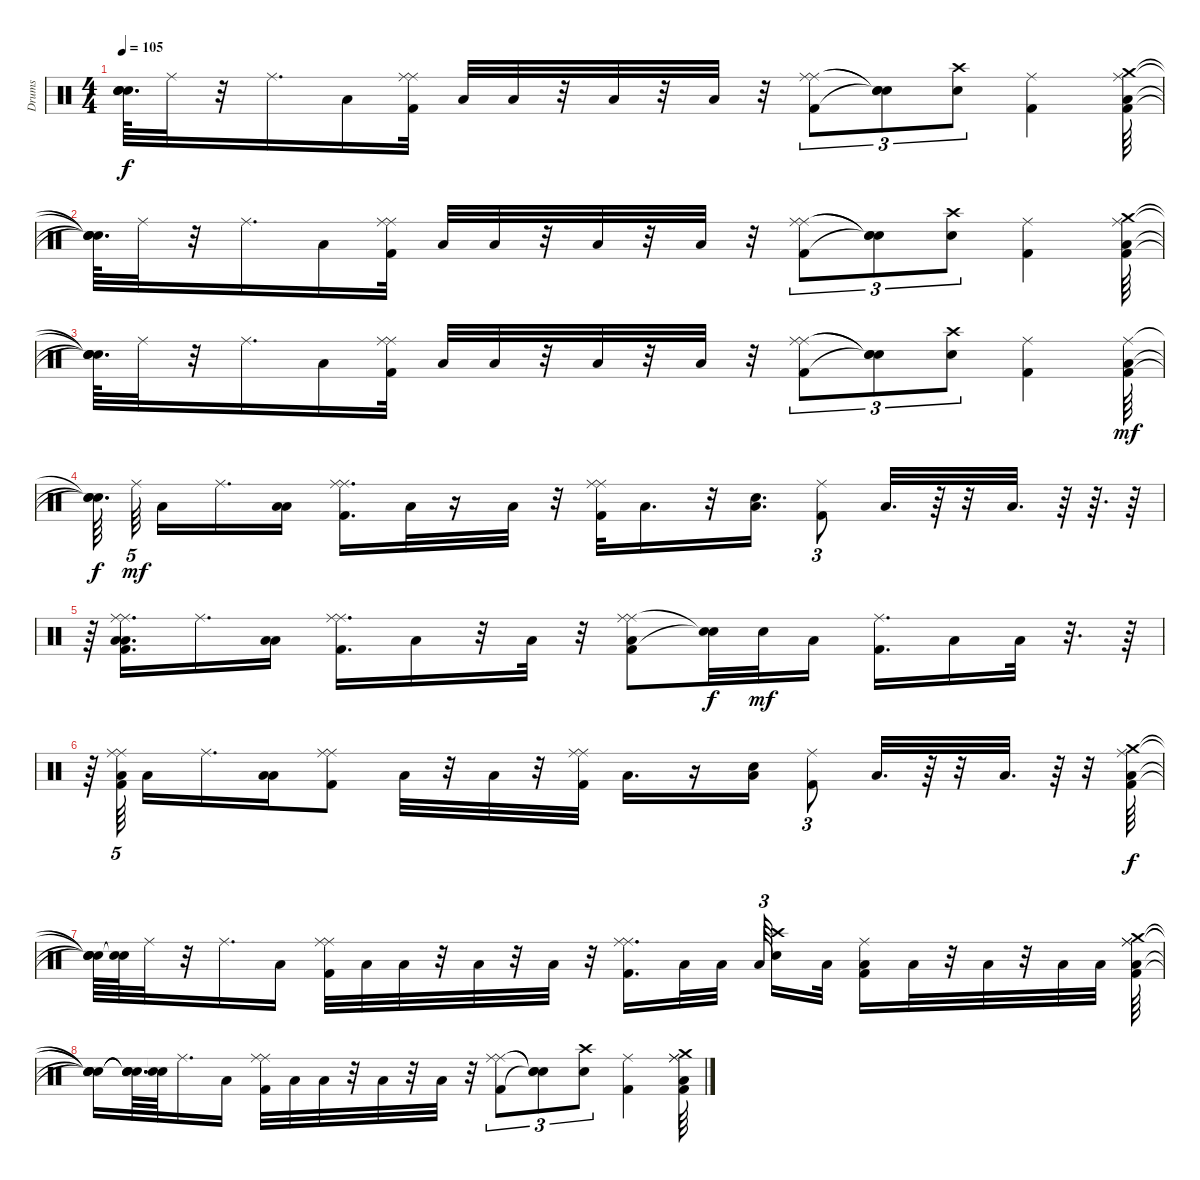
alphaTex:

\track ("Drums" "Drums") {instrument percussion}
\staff {score}
\articulation defaults
\ts (4 4)
\tempo 105
\clef neutral
\ks c
("Snare (hit)"{t} "Snare (hit)"{t} "Snare (hit)"{t} "Snare (hit)"{t}).64{d dy f} "Ride (middle)".32 r.32 "Ride (middle)".16{d} "Low Tom (hit)".16 ("Kick (hit) 2" "Ride (middle)" "Ride (middle)").32 "Low Tom (hit)".32 "Low Tom (hit)".32 r.32 "Low Tom (hit)".32 r.32 "Low Tom (hit)".32 r.32 ("Ride (middle)" "Kick (hit) 2" "Ride (middle)").8{tu (3 2)} ("Snare (hit)"{t} "Snare (hit)"{t} "Snare (hit)"{t}).8{tu (3 2)} ("Electric Snare (hit)" "Crash high (hit)").8{tu (3 2)} ("Kick (hit) 2" "Ride (middle)").4 ("Low Tom (hit)" "Crash medium (hit)" "Kick (hit) 2" "Ride (middle)").64 |
("Snare (hit)"{t} "Snare (hit)"{t} "Snare (hit)"{t} "Snare (hit)"{t}).64{d} "Ride (middle)".32 r.32 "Ride (middle)".16{d} "Low Tom (hit)".16 ("Kick (hit) 2" "Ride (middle)" "Ride (middle)").32 "Low Tom (hit)".32 "Low Tom (hit)".32 r.32 "Low Tom (hit)".32 r.32 "Low Tom (hit)".32 r.32 ("Ride (middle)" "Kick (hit) 2" "Ride (middle)").8{tu (3 2)} ("Snare (hit)"{t} "Snare (hit)"{t} "Snare (hit)"{t}).8{tu (3 2)} ("Electric Snare (hit)" "Crash high (hit)").8{tu (3 2)} ("Kick (hit) 2" "Ride (middle)").4 ("Low Tom (hit)" "Crash medium (hit)" "Kick (hit) 2" "Ride (middle)").64 |
("Snare (hit)"{t} "Snare (hit)"{t} "Snare (hit)"{t} "Snare (hit)"{t}).64{d} "Ride (middle)".32 r.32 "Ride (middle)".16{d} "Low Tom (hit)".16 ("Kick (hit) 2" "Ride (middle)" "Ride (middle)").32 "Low Tom (hit)".32 "Low Tom (hit)".32 r.32 "Low Tom (hit)".32 r.32 "Low Tom (hit)".32 r.32 ("Ride (middle)" "Kick (hit) 2" "Ride (middle)").8{tu (3 2)} ("Snare (hit)"{t} "Snare (hit)"{t} "Snare (hit)"{t}).8{tu (3 2)} ("Electric Snare (hit)" "Crash high (hit)").8{tu (3 2)} ("Kick (hit) 2" "Ride (middle)").4 ("Low Tom (hit)" "Kick (hit) 2" "Ride (middle)").64{dy mf} |
("Snare (hit)"{t} "Snare (hit)"{t} "Snare (hit)"{t}).64{d dy f} "Ride (middle)".64{tu (5 4) dy mf} "Low Tom (hit)".16 "Ride (middle)".16{d} ("Low Tom (hit)" "Low Tom (hit)").16 ("Kick (hit) 2" "Ride (middle)" "Ride (middle)").16{d} "Low Tom (hit)".32 r.16 "Low Tom (hit)".32 r.32 ("Ride (middle)" "Kick (hit) 2" "Ride (middle)").32 "Low Tom (hit)".16{d} r.32 ("Electric Snare (hit)" "Low Tom (hit)").16{d} ("Kick (hit) 2" "Ride (middle)").8{tu (3 2)} "Low Tom (hit)".32{d} r.64 r.32 "Low Tom (hit)".32{d} r.64 r.64{d} r.64 |
r.64 ("Low Tom (hit)" "Kick (hit) 2" "Ride (middle)" "Low Tom (hit)" "Ride (middle)").16{d} "Ride (middle)".16{d} ("Low Tom (hit)" "Low Tom (hit)").16 ("Kick (hit) 2" "Ride (middle)" "Ride (middle)").16{d} "Low Tom (hit)".16 r.32 "Low Tom (hit)".32 r.32 ("Ride (middle)" "Kick (hit) 2" "Ride (middle)" "Low Tom (hit)").8 ("Snare (hit)"{t} "Snare (hit)"{t}).32{dy f} "Electric Snare (hit)".32{dy mf} "Low Tom (hit)".16 ("Kick (hit) 2" "Ride (middle)").16{d} "Low Tom (hit)".16 "Low Tom (hit)".32 r.32{d} r.64 |
r.64 ("Low Tom (hit)" "Kick (hit) 2" "Ride (middle)" "Ride (middle)").64{tu (5 4)} "Low Tom (hit)".16 "Ride (middle)".16{d} ("Low Tom (hit)" "Low Tom (hit)").16 ("Kick (hit) 2" "Ride (middle)" "Ride (middle)").8 "Low Tom (hit)".32 r.32 "Low Tom (hit)".32 r.32 ("Ride (middle)" "Kick (hit) 2" "Ride (middle)").32 "Low Tom (hit)".16{d} r.16 ("Electric Snare (hit)" "Low Tom (hit)").16 ("Kick (hit) 2" "Ride (middle)").8{tu (3 2)} "Low Tom (hit)".32{d} r.64 r.32 "Low Tom (hit)".32{d} r.64 r.32 ("Low Tom (hit)" "Crash medium (hit)" "Kick (hit) 2" "Ride (middle)").64{dy f} |
("Snare (hit)"{t} "Snare (hit)"{t} "Snare (hit)"{t} "Snare (hit)"{t}).64 ("Snare (hit)"{t} "Snare (hit)"{t}).64 "Ride (middle)".32 r.32 "Ride (middle)".16{d} "Low Tom (hit)".16 ("Kick (hit) 2" "Ride (middle)" "Ride (middle)").32 "Low Tom (hit)".32 "Low Tom (hit)".32 r.32 "Low Tom (hit)".32 r.32 "Low Tom (hit)".32 r.32 ("Ride (middle)" "Kick (hit) 2" "Ride (middle)").16{d} "Low Tom (hit)".32 "Low Tom (hit)".32 "Low Tom (hit)".64{tu (3 2)} ("Electric Snare (hit)" "Crash high (hit)").16 "Low Tom (hit)".32 ("Low Tom (hit)" "Kick (hit) 2" "Ride (middle)").16 "Low Tom (hit)".32 r.32 "Low Tom (hit)".32 r.32 "Low Tom (hit)".32 "Low Tom (hit)".32 ("Low Tom (hit)" "Crash medium (hit)" "Kick (hit) 2" "Ride (middle)" "Ride (middle)").64 |
("Snare (hit)"{t} "Snare (hit)"{t} "Snare (hit)"{t} "Snare (hit)"{t} "Snare (hit)"{t}).16 ("Snare (hit)"{t} "Snare (hit)"{t} "Snare (hit)"{t} "Snare (hit)"{t}).64{d} ("Snare (hit)"{t} "Snare (hit)"{t}).64 "Ride (middle)".16{d} "Low Tom (hit)".16 ("Kick (hit) 2" "Ride (middle)" "Ride (middle)").32 "Low Tom (hit)".32 "Low Tom (hit)".32 r.32 "Low Tom (hit)".32 r.32 "Low Tom (hit)".32 r.32 ("Ride (middle)" "Kick (hit) 2" "Ride (middle)").8{tu (3 2)} ("Snare (hit)"{t} "Snare (hit)"{t} "Snare (hit)"{t}).8{tu (3 2)} ("Electric Snare (hit)" "Crash high (hit)").8{tu (3 2)} ("Kick (hit) 2" "Ride (middle)").4 ("Low Tom (hit)" "Crash medium (hit)" "Kick (hit) 2" "Ride (middle)" "Ride (middle)").64
